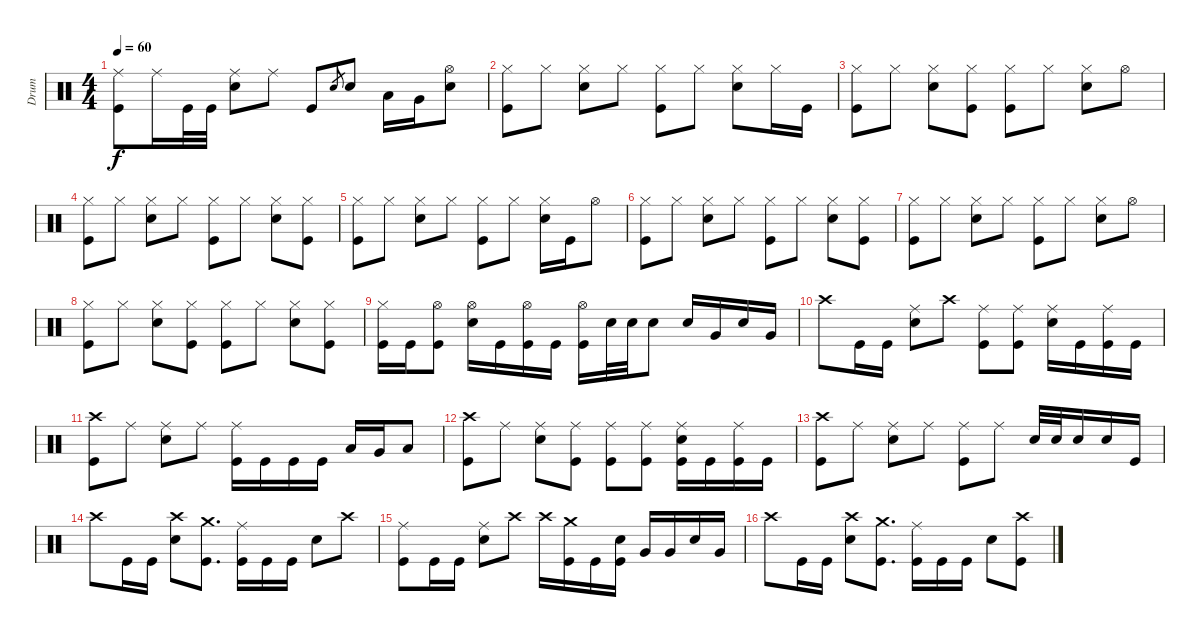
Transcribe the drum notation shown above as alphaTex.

\track ("Drum" "Drum") {instrument percussion}
\staff {score}
\articulation defaults
\ts (4 4)
\tempo 60
\clef neutral
\ks c
("Ride (middle)" "Kick (hit)").8{dy f} "Ride (middle)".16 "Kick (hit)".32 "Kick (hit)".32 ("Ride (middle)" "Snare (hit) 2").8 "Ride (middle)".8 "Kick (hit)".8 "Snare (hit) 2".8{gr} "Snare (hit) 2".8 "Low Tom (hit)".16 "Very Low Tom (hit)".16 ("Hi-Hat (open)" "Snare (hit) 2").8 |
("Hi-Hat (closed)" "Kick (hit)").8 "Hi-Hat (closed)".8 ("Hi-Hat (closed)" "Snare (hit) 2").8 "Hi-Hat (closed)".8 ("Hi-Hat (closed)" "Kick (hit)").8 "Hi-Hat (closed)".8 ("Hi-Hat (closed)" "Snare (hit) 2").8 "Hi-Hat (closed)".16 "Kick (hit)".16 |
("Hi-Hat (closed)" "Kick (hit)").8 "Hi-Hat (closed)".8 ("Hi-Hat (closed)" "Snare (hit) 2").8 ("Hi-Hat (closed)" "Kick (hit)").8 ("Hi-Hat (closed)" "Kick (hit)").8 "Hi-Hat (closed)".8 ("Hi-Hat (closed)" "Snare (hit) 2").8 "Hi-Hat (open)".8 |
("Hi-Hat (closed)" "Kick (hit)").8 "Hi-Hat (closed)".8 ("Hi-Hat (closed)" "Snare (hit) 2").8 "Hi-Hat (closed)".8 ("Hi-Hat (closed)" "Kick (hit)").8 "Hi-Hat (closed)".8 ("Hi-Hat (closed)" "Snare (hit) 2").8 ("Hi-Hat (closed)" "Kick (hit)").8 |
("Hi-Hat (closed)" "Kick (hit)").8 "Hi-Hat (closed)".8 ("Hi-Hat (closed)" "Snare (hit) 2").8 "Hi-Hat (closed)".8 ("Hi-Hat (closed)" "Kick (hit)").8 "Hi-Hat (closed)".8 ("Hi-Hat (closed)" "Snare (hit) 2").16 "Kick (hit)".16 "Hi-Hat (open)".8 |
("Hi-Hat (closed)" "Kick (hit)").8 "Hi-Hat (closed)".8 ("Hi-Hat (closed)" "Snare (hit) 2").8 "Hi-Hat (closed)".8 ("Hi-Hat (closed)" "Kick (hit)").8 "Hi-Hat (closed)".8 ("Hi-Hat (closed)" "Snare (hit) 2").8 ("Hi-Hat (closed)" "Kick (hit)").8 |
("Hi-Hat (closed)" "Kick (hit)").8 "Hi-Hat (closed)".8 ("Hi-Hat (closed)" "Snare (hit) 2").8 "Hi-Hat (closed)".8 ("Hi-Hat (closed)" "Kick (hit)").8 "Hi-Hat (closed)".8 ("Hi-Hat (closed)" "Snare (hit) 2").8 "Hi-Hat (open)".8 |
("Hi-Hat (closed)" "Kick (hit)").8 "Hi-Hat (closed)".8 ("Hi-Hat (closed)" "Snare (hit) 2").8 ("Hi-Hat (closed)" "Kick (hit)").8 ("Hi-Hat (closed)" "Kick (hit)").8 "Hi-Hat (closed)".8 ("Hi-Hat (closed)" "Snare (hit) 2").8 ("Hi-Hat (closed)" "Kick (hit)").8 |
("Hi-Hat (closed)" "Kick (hit)").16 "Kick (hit)".16 ("Hi-Hat (open)" "Kick (hit)").8 ("Hi-Hat (open)" "Snare (hit) 2").16 "Kick (hit)".16 ("Hi-Hat (open)" "Kick (hit)").16 "Kick (hit)".16 ("Hi-Hat (open)" "Kick (hit)").16 "Snare (hit) 2".32 "Snare (hit) 2".32 "Snare (hit) 2".8 "Snare (hit) 2".16 "Very Low Tom (hit)".16 "Snare (hit) 2".16 "Very Low Tom (hit)".16 |
"Crash high (hit)".8 "Kick (hit)".16 "Kick (hit)".16 ("Ride (middle)" "Snare (hit) 2").8 "Crash high (hit)".8 ("Ride (middle)" "Kick (hit)").8 ("Ride (middle)" "Kick (hit)").8 ("Ride (middle)" "Snare (hit) 2").16 "Kick (hit)".16 ("Ride (middle)" "Kick (hit)").16 "Kick (hit)".16 |
("Crash high (hit)" "Kick (hit)").8 "Ride (middle)".8 ("Ride (middle)" "Snare (hit) 2").8 "Ride (middle)".8 ("Ride (middle)" "Kick (hit)").16 "Kick (hit)".16 "Kick (hit)".16 "Kick (hit)".16 "Low Tom (hit)".16 "Very Low Tom (hit)".16 "Low Floor Tom (hit)".8 |
("Crash high (hit)" "Kick (hit)").8 "Ride (middle)".8 ("Ride (middle)" "Snare (hit) 2").8 ("Ride (middle)" "Kick (hit)").8 ("Ride (middle)" "Kick (hit)").8 ("Ride (middle)" "Kick (hit)").8 ("Ride (middle)" "Snare (hit) 2" "Kick (hit)").16 "Kick (hit)".16 ("Ride (middle)" "Kick (hit)").16 "Kick (hit)".16 |
("Crash high (hit)" "Kick (hit)").8 "Ride (middle)".8 ("Ride (middle)" "Snare (hit) 2").8 "Ride (middle)".8 ("Ride (middle)" "Kick (hit)").8 "Ride (middle)".8 "Snare (hit) 2".32 "Snare (hit) 2".32 "Snare (hit) 2".16 "Snare (hit) 2".16 "Kick (hit)".16 |
"Crash high (hit)".8 "Kick (hit)".16 "Kick (hit)".16 ("Crash high (hit)" "Snare (hit) 2").8 ("Crash medium (hit)" "Kick (hit)").8{d} ("Ride (middle)" "Kick (hit)").16 "Kick (hit)".16 "Kick (hit)".16 "Snare (hit) 2".8 "Crash high (hit)".8 |
("Ride (middle)" "Kick (hit)").8 "Kick (hit)".16 "Kick (hit)".16 ("Ride (middle)" "Snare (hit) 2").8 "Crash high (hit)".8 "Crash high (hit)".16 ("Crash medium (hit)" "Kick (hit)").16 "Kick (hit)".16 ("Snare (hit) 2" "Kick (hit)").16 "Very Low Tom (hit)".16 "Very Low Tom (hit)".16 "Snare (hit) 2".16 "Very Low Tom (hit)".16 |
"Crash high (hit)".8 "Kick (hit)".16 "Kick (hit)".16 ("Crash high (hit)" "Snare (hit) 2").8 ("Crash medium (hit)" "Kick (hit)").8{d} ("Ride (middle)" "Kick (hit)").16 "Kick (hit)".16 "Kick (hit)".16 "Snare (hit) 2".8 ("Crash high (hit)" "Kick (hit)").8
